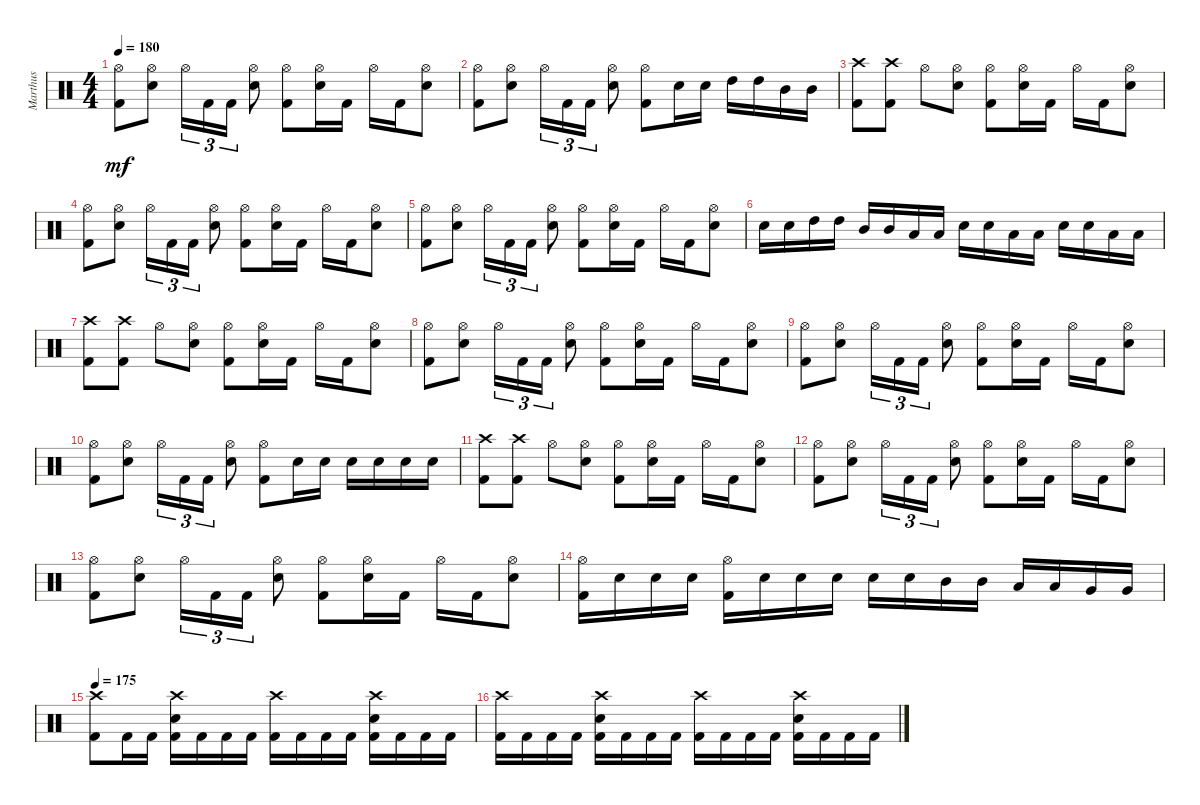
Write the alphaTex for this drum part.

\track ("Marthus" "Marthus") {instrument percussion}
\staff {score}
\articulation defaults
\ts (4 4)
\tempo 180
\clef neutral
\ks c
("Hi-Hat (open)" "Kick (hit) 2").8{dy mf} ("Hi-Hat (open)" "Electric Snare (hit)").8 "Hi-Hat (open)".16{tu (3 2)} "Kick (hit) 2".16{tu (3 2)} "Kick (hit) 2".16{tu (3 2)} ("Hi-Hat (open)" "Electric Snare (hit)").8 ("Hi-Hat (open)" "Kick (hit) 2").8 ("Hi-Hat (open)" "Electric Snare (hit)").16 "Kick (hit) 2".16 "Hi-Hat (open)".16 "Kick (hit) 2".16 ("Hi-Hat (open)" "Electric Snare (hit)").8 |
("Hi-Hat (open)" "Kick (hit) 2").8 ("Hi-Hat (open)" "Electric Snare (hit)").8 "Hi-Hat (open)".16{tu (3 2)} "Kick (hit) 2".16{tu (3 2)} "Kick (hit) 2".16{tu (3 2)} ("Hi-Hat (open)" "Electric Snare (hit)").8 ("Hi-Hat (open)" "Kick (hit) 2").8 "Electric Snare (hit)".16 "Electric Snare (hit)".16 "High Tom (hit)".16 "High Tom (hit)".16 "Mid Tom (hit)".16 "Mid Tom (hit)".16 |
("Crash high (hit)" "Kick (hit) 2").8 ("Crash high (hit)" "Kick (hit) 2").8 "Hi-Hat (open)".8 ("Hi-Hat (open)" "Electric Snare (hit)").8 ("Hi-Hat (open)" "Kick (hit) 2").8 ("Hi-Hat (open)" "Electric Snare (hit)").16 "Kick (hit) 2".16 "Hi-Hat (open)".16 "Kick (hit) 2".16 ("Hi-Hat (open)" "Electric Snare (hit)").8 |
("Hi-Hat (open)" "Kick (hit) 2").8 ("Hi-Hat (open)" "Electric Snare (hit)").8 "Hi-Hat (open)".16{tu (3 2)} "Kick (hit) 2".16{tu (3 2)} "Kick (hit) 2".16{tu (3 2)} ("Hi-Hat (open)" "Electric Snare (hit)").8 ("Hi-Hat (open)" "Kick (hit) 2").8 ("Hi-Hat (open)" "Electric Snare (hit)").16 "Kick (hit) 2".16 "Hi-Hat (open)".16 "Kick (hit) 2".16 ("Hi-Hat (open)" "Electric Snare (hit)").8 |
("Hi-Hat (open)" "Kick (hit) 2").8 ("Hi-Hat (open)" "Electric Snare (hit)").8 "Hi-Hat (open)".16{tu (3 2)} "Kick (hit) 2".16{tu (3 2)} "Kick (hit) 2".16{tu (3 2)} ("Hi-Hat (open)" "Electric Snare (hit)").8 ("Hi-Hat (open)" "Kick (hit) 2").8 ("Hi-Hat (open)" "Electric Snare (hit)").16 "Kick (hit) 2".16 "Hi-Hat (open)".16 "Kick (hit) 2".16 ("Hi-Hat (open)" "Electric Snare (hit)").8 |
"Electric Snare (hit)".16 "Electric Snare (hit)".16 "High Tom (hit)".16 "High Tom (hit)".16 "Mid Tom (hit)".16 "Mid Tom (hit)".16 "Low Tom (hit)".16 "Low Tom (hit)".16 "Electric Snare (hit)".16 "Electric Snare (hit)".16 "Low Tom (hit)".16 "Low Tom (hit)".16 "Electric Snare (hit)".16 "Electric Snare (hit)".16 "Low Tom (hit)".16 "Low Tom (hit)".16 |
("Crash high (hit)" "Kick (hit) 2").8 ("Crash high (hit)" "Kick (hit) 2").8 "Hi-Hat (open)".8 ("Hi-Hat (open)" "Electric Snare (hit)").8 ("Hi-Hat (open)" "Kick (hit) 2").8 ("Hi-Hat (open)" "Electric Snare (hit)").16 "Kick (hit) 2".16 "Hi-Hat (open)".16 "Kick (hit) 2".16 ("Hi-Hat (open)" "Electric Snare (hit)").8 |
("Hi-Hat (open)" "Kick (hit) 2").8 ("Hi-Hat (open)" "Electric Snare (hit)").8 "Hi-Hat (open)".16{tu (3 2)} "Kick (hit) 2".16{tu (3 2)} "Kick (hit) 2".16{tu (3 2)} ("Hi-Hat (open)" "Electric Snare (hit)").8 ("Hi-Hat (open)" "Kick (hit) 2").8 ("Hi-Hat (open)" "Electric Snare (hit)").16 "Kick (hit) 2".16 "Hi-Hat (open)".16 "Kick (hit) 2".16 ("Hi-Hat (open)" "Electric Snare (hit)").8 |
("Hi-Hat (open)" "Kick (hit) 2").8 ("Hi-Hat (open)" "Electric Snare (hit)").8 "Hi-Hat (open)".16{tu (3 2)} "Kick (hit) 2".16{tu (3 2)} "Kick (hit) 2".16{tu (3 2)} ("Hi-Hat (open)" "Electric Snare (hit)").8 ("Hi-Hat (open)" "Kick (hit) 2").8 ("Hi-Hat (open)" "Electric Snare (hit)").16 "Kick (hit) 2".16 "Hi-Hat (open)".16 "Kick (hit) 2".16 ("Hi-Hat (open)" "Electric Snare (hit)").8 |
("Hi-Hat (open)" "Kick (hit) 2").8 ("Hi-Hat (open)" "Electric Snare (hit)").8 "Hi-Hat (open)".16{tu (3 2)} "Kick (hit) 2".16{tu (3 2)} "Kick (hit) 2".16{tu (3 2)} ("Hi-Hat (open)" "Electric Snare (hit)").8 ("Hi-Hat (open)" "Kick (hit) 2").8 "Electric Snare (hit)".16 "Electric Snare (hit)".16 "Electric Snare (hit)".16 "Electric Snare (hit)".16 "Electric Snare (hit)".16 "Electric Snare (hit)".16 |
("Crash high (hit)" "Kick (hit) 2").8 ("Crash high (hit)" "Kick (hit) 2").8 "Hi-Hat (open)".8 ("Hi-Hat (open)" "Electric Snare (hit)").8 ("Hi-Hat (open)" "Kick (hit) 2").8 ("Hi-Hat (open)" "Electric Snare (hit)").16 "Kick (hit) 2".16 "Hi-Hat (open)".16 "Kick (hit) 2".16 ("Hi-Hat (open)" "Electric Snare (hit)").8 |
("Hi-Hat (open)" "Kick (hit) 2").8 ("Hi-Hat (open)" "Electric Snare (hit)").8 "Hi-Hat (open)".16{tu (3 2)} "Kick (hit) 2".16{tu (3 2)} "Kick (hit) 2".16{tu (3 2)} ("Hi-Hat (open)" "Electric Snare (hit)").8 ("Hi-Hat (open)" "Kick (hit) 2").8 ("Hi-Hat (open)" "Electric Snare (hit)").16 "Kick (hit) 2".16 "Hi-Hat (open)".16 "Kick (hit) 2".16 ("Hi-Hat (open)" "Electric Snare (hit)").8 |
("Hi-Hat (open)" "Kick (hit) 2").8 ("Hi-Hat (open)" "Electric Snare (hit)").8 "Hi-Hat (open)".16{tu (3 2)} "Kick (hit) 2".16{tu (3 2)} "Kick (hit) 2".16{tu (3 2)} ("Hi-Hat (open)" "Electric Snare (hit)").8 ("Hi-Hat (open)" "Kick (hit) 2").8 ("Hi-Hat (open)" "Electric Snare (hit)").16 "Kick (hit) 2".16 "Hi-Hat (open)".16 "Kick (hit) 2".16 ("Hi-Hat (open)" "Electric Snare (hit)").8 |
("Hi-Hat (open)" "Kick (hit) 2").16 "Electric Snare (hit)".16 "Electric Snare (hit)".16 "Electric Snare (hit)".16 ("Hi-Hat (open)" "Kick (hit) 2").16 "Electric Snare (hit)".16 "Electric Snare (hit)".16 "Electric Snare (hit)".16 "Electric Snare (hit)".16 "Electric Snare (hit)".16 "Mid Tom (hit)".16 "Mid Tom (hit)".16 "Low Tom (hit)".16 "Low Tom (hit)".16 "Very Low Tom (hit)".16 "Very Low Tom (hit)".16 |
\tempo 175
("Crash high (hit)" "Kick (hit) 2").8 "Kick (hit) 2".16 "Kick (hit) 2".16 ("Crash high (hit)" "Electric Snare (hit)" "Kick (hit) 2").16 "Kick (hit) 2".16 "Kick (hit) 2".16 "Kick (hit) 2".16 ("Crash high (hit)" "Kick (hit) 2").16 "Kick (hit) 2".16 "Kick (hit) 2".16 "Kick (hit) 2".16 ("Crash high (hit)" "Electric Snare (hit)" "Kick (hit) 2").16 "Kick (hit) 2".16 "Kick (hit) 2".16 "Kick (hit) 2".16 |
("Crash high (hit)" "Kick (hit) 2").16 "Kick (hit) 2".16 "Kick (hit) 2".16 "Kick (hit) 2".16 ("Crash high (hit)" "Electric Snare (hit)" "Kick (hit) 2").16 "Kick (hit) 2".16 "Kick (hit) 2".16 "Kick (hit) 2".16 ("Crash high (hit)" "Kick (hit) 2").16 "Kick (hit) 2".16 "Kick (hit) 2".16 "Kick (hit) 2".16 ("Crash high (hit)" "Electric Snare (hit)" "Kick (hit) 2").16 "Kick (hit) 2".16 "Kick (hit) 2".16 "Kick (hit) 2".16
